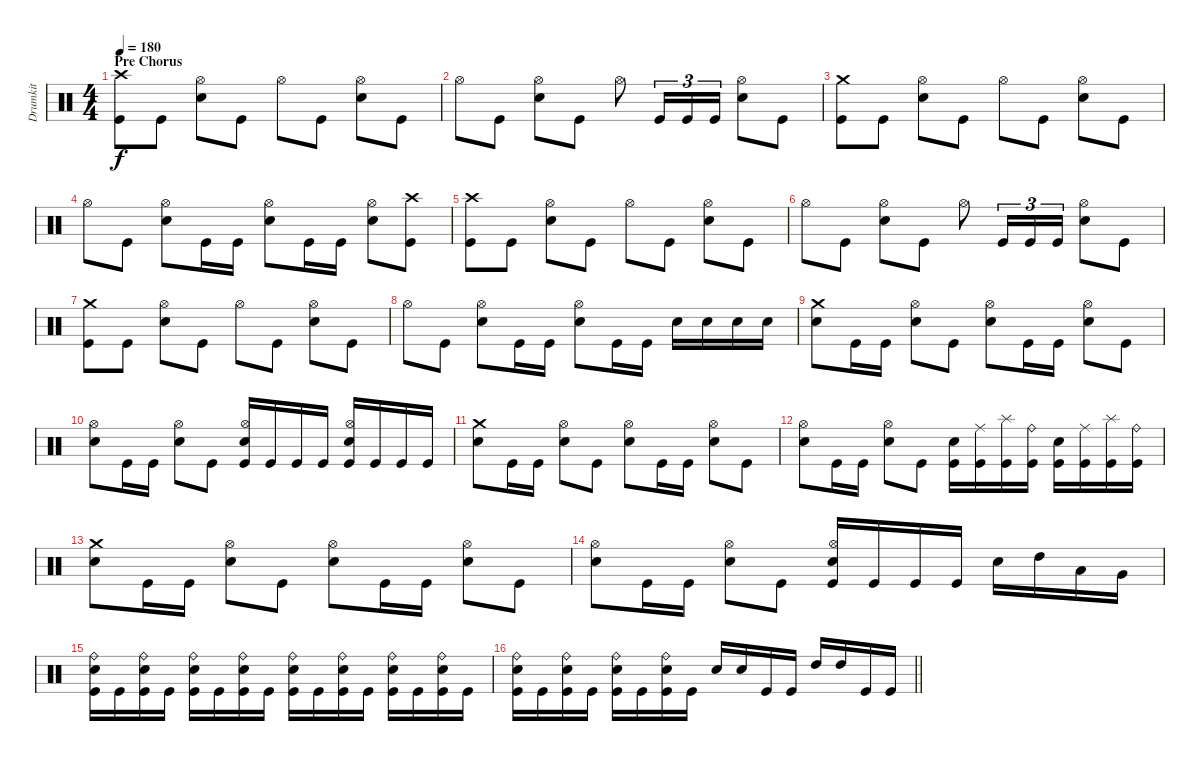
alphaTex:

\track ("Drumkit" "Drumkit") {instrument percussion}
\staff {score}
\articulation defaults
\ts (4 4)
\section ("" "Pre Chorus")
\tempo 180
\clef neutral
\ks c
("Crash high (hit)" "Kick (hit)").8{dy f} "Kick (hit)".8 ("Hi-Hat (open)" "Snare (hit) 2").8 "Kick (hit)".8 "Hi-Hat (open)".8 "Kick (hit)".8 ("Hi-Hat (open)" "Snare (hit) 2").8 "Kick (hit)".8 |
"Hi-Hat (open)".8 "Kick (hit)".8 ("Hi-Hat (open)" "Snare (hit) 2").8 "Kick (hit)".8 "Hi-Hat (open)".8 "Kick (hit)".16{tu (3 2)} "Kick (hit)".16{tu (3 2)} "Kick (hit)".16{tu (3 2)} ("Hi-Hat (open)" "Snare (hit) 2").8 "Kick (hit)".8 |
("Crash medium (hit)" "Kick (hit)").8 "Kick (hit)".8 ("Hi-Hat (open)" "Snare (hit) 2").8 "Kick (hit)".8 "Hi-Hat (open)".8 "Kick (hit)".8 ("Hi-Hat (open)" "Snare (hit) 2").8 "Kick (hit)".8 |
"Hi-Hat (open)".8 "Kick (hit)".8 ("Hi-Hat (open)" "Snare (hit) 2").8 "Kick (hit)".16 "Kick (hit)".16 ("Hi-Hat (open)" "Snare (hit) 2").8 "Kick (hit)".16 "Kick (hit)".16 ("Hi-Hat (open)" "Snare (hit) 2").8 ("Crash high (hit)" "Kick (hit)").8 |
("Crash high (hit)" "Kick (hit)").8 "Kick (hit)".8 ("Hi-Hat (open)" "Snare (hit) 2").8 "Kick (hit)".8 "Hi-Hat (open)".8 "Kick (hit)".8 ("Hi-Hat (open)" "Snare (hit) 2").8 "Kick (hit)".8 |
"Hi-Hat (open)".8 "Kick (hit)".8 ("Hi-Hat (open)" "Snare (hit) 2").8 "Kick (hit)".8 "Hi-Hat (open)".8 "Kick (hit)".16{tu (3 2)} "Kick (hit)".16{tu (3 2)} "Kick (hit)".16{tu (3 2)} ("Hi-Hat (open)" "Snare (hit) 2").8 "Kick (hit)".8 |
("Crash medium (hit)" "Kick (hit)").8 "Kick (hit)".8 ("Hi-Hat (open)" "Snare (hit) 2").8 "Kick (hit)".8 "Hi-Hat (open)".8 "Kick (hit)".8 ("Hi-Hat (open)" "Snare (hit) 2").8 "Kick (hit)".8 |
"Hi-Hat (open)".8 "Kick (hit)".8 ("Hi-Hat (open)" "Snare (hit) 2").8 "Kick (hit)".16 "Kick (hit)".16 ("Hi-Hat (open)" "Snare (hit) 2").8 "Kick (hit)".16 "Kick (hit)".16 "Snare (hit) 2".16 "Snare (hit) 2".16 "Snare (hit) 2".16 "Snare (hit) 2".16 |
("Crash medium (hit)" "Snare (hit) 2").8 "Kick (hit)".16 "Kick (hit)".16 ("Hi-Hat (open)" "Snare (hit) 2").8 "Kick (hit)".8 ("Hi-Hat (open)" "Snare (hit) 2").8 "Kick (hit)".16 "Kick (hit)".16 ("Hi-Hat (open)" "Snare (hit) 2").8 "Kick (hit)".8 |
("Hi-Hat (open)" "Snare (hit) 2").8 "Kick (hit)".16 "Kick (hit)".16 ("Hi-Hat (open)" "Snare (hit) 2").8 "Kick (hit)".8 ("Hi-Hat (open)" "Snare (hit) 2" "Kick (hit)").16 "Kick (hit)".16 "Kick (hit)".16 "Kick (hit)".16 ("Hi-Hat (open)" "Snare (hit) 2" "Kick (hit)").16 "Kick (hit)".16 "Kick (hit)".16 "Kick (hit)".16 |
("Crash medium (hit)" "Snare (hit) 2").8 "Kick (hit)".16 "Kick (hit)".16 ("Hi-Hat (open)" "Snare (hit) 2").8 "Kick (hit)".8 ("Hi-Hat (open)" "Snare (hit) 2").8 "Kick (hit)".16 "Kick (hit)".16 ("Hi-Hat (open)" "Snare (hit) 2").8 "Kick (hit)".8 |
("Hi-Hat (open)" "Snare (hit) 2").8 "Kick (hit)".16 "Kick (hit)".16 ("Hi-Hat (open)" "Snare (hit) 2").8 "Kick (hit)".8 ("Snare (hit) 2" "Kick (hit)").16 ("Ride (middle)" "Kick (hit)").16 ("Splash (hit)" "Kick (hit)").16 ("Ride (bell)" "Kick (hit)").16 ("Snare (hit) 2" "Kick (hit)").16 ("Ride (middle)" "Kick (hit)").16 ("Splash (hit)" "Kick (hit)").16 ("Ride (bell)" "Kick (hit)").16 |
("Crash medium (hit)" "Snare (hit) 2").8 "Kick (hit)".16 "Kick (hit)".16 ("Hi-Hat (open)" "Snare (hit) 2").8 "Kick (hit)".8 ("Hi-Hat (open)" "Snare (hit) 2").8 "Kick (hit)".16 "Kick (hit)".16 ("Hi-Hat (open)" "Snare (hit) 2").8 "Kick (hit)".8 |
("Hi-Hat (open)" "Snare (hit) 2").8 "Kick (hit)".16 "Kick (hit)".16 ("Hi-Hat (open)" "Snare (hit) 2").8 "Kick (hit)".8 ("Hi-Hat (open)" "Snare (hit) 2" "Kick (hit)").16 "Kick (hit)".16 "Kick (hit)".16 "Kick (hit)".16 "Snare (hit) 2".16 "High Tom (hit)".16 "Low Tom (hit)".16 "Very Low Tom (hit)".16 |
("Ride (bell)" "Snare (hit) 2" "Kick (hit)").16 "Kick (hit)".16 ("Ride (bell)" "Snare (hit) 2" "Kick (hit)").16 "Kick (hit)".16 ("Ride (bell)" "Snare (hit) 2" "Kick (hit)").16 "Kick (hit)".16 ("Ride (bell)" "Snare (hit) 2" "Kick (hit)").16 "Kick (hit)".16 ("Ride (bell)" "Snare (hit) 2" "Kick (hit)").16 "Kick (hit)".16 ("Ride (bell)" "Snare (hit) 2" "Kick (hit)").16 "Kick (hit)".16 ("Ride (bell)" "Snare (hit) 2" "Kick (hit)").16 "Kick (hit)".16 ("Ride (bell)" "Snare (hit) 2" "Kick (hit)").16 "Kick (hit)".16 |
\barLineRight lightlight
("Ride (bell)" "Snare (hit) 2" "Kick (hit)").16 "Kick (hit)".16 ("Ride (bell)" "Snare (hit) 2" "Kick (hit)").16 "Kick (hit)".16 ("Ride (bell)" "Snare (hit) 2" "Kick (hit)").16 "Kick (hit)".16 ("Ride (bell)" "Snare (hit) 2" "Kick (hit)").16 "Kick (hit)".16 "Snare (hit) 2".16 "Snare (hit) 2".16 "Kick (hit)".16 "Kick (hit)".16 "High Tom (hit)".16 "High Tom (hit)".16 "Kick (hit)".16 "Kick (hit)".16
